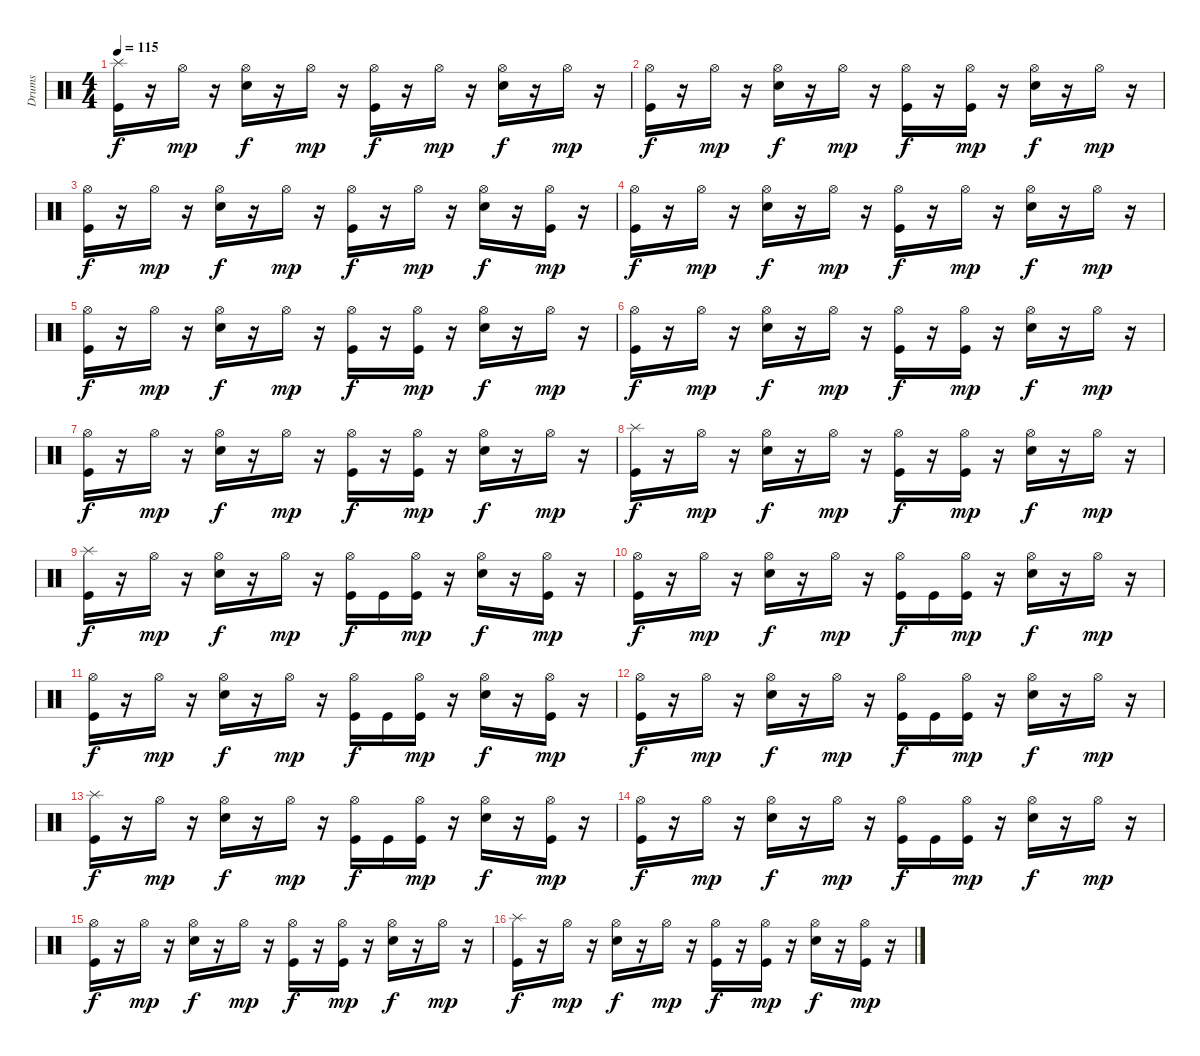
\track ("Drums" "Drums") {instrument percussion}
\staff {score}
\articulation defaults
\ts (4 4)
\tempo 115
\clef neutral
\ks c
("Splash (hit)" "Kick (hit)").16{dy f} r.16 "Hi-Hat (open)".16{dy mp} r.16 ("Hi-Hat (open)" "Electric Snare (hit)").16{dy f} r.16 "Hi-Hat (open)".16{dy mp} r.16 ("Hi-Hat (open)" "Kick (hit)").16{dy f} r.16 "Hi-Hat (open)".16{dy mp} r.16 ("Hi-Hat (open)" "Electric Snare (hit)").16{dy f} r.16 "Hi-Hat (open)".16{dy mp} r.16 |
("Hi-Hat (open)" "Kick (hit)").16{dy f} r.16 "Hi-Hat (open)".16{dy mp} r.16 ("Hi-Hat (open)" "Electric Snare (hit)").16{dy f} r.16 "Hi-Hat (open)".16{dy mp} r.16 ("Hi-Hat (open)" "Kick (hit)").16{dy f} r.16 ("Kick (hit)" "Hi-Hat (open)").16{dy mp} r.16 ("Hi-Hat (open)" "Electric Snare (hit)").16{dy f} r.16 "Hi-Hat (open)".16{dy mp} r.16 |
("Hi-Hat (open)" "Kick (hit)").16{dy f} r.16 "Hi-Hat (open)".16{dy mp} r.16 ("Hi-Hat (open)" "Electric Snare (hit)").16{dy f} r.16 "Hi-Hat (open)".16{dy mp} r.16 ("Hi-Hat (open)" "Kick (hit)").16{dy f} r.16 "Hi-Hat (open)".16{dy mp} r.16 ("Hi-Hat (open)" "Electric Snare (hit)").16{dy f} r.16 ("Kick (hit)" "Hi-Hat (open)").16{dy mp} r.16 |
("Hi-Hat (open)" "Kick (hit)").16{dy f} r.16 "Hi-Hat (open)".16{dy mp} r.16 ("Hi-Hat (open)" "Electric Snare (hit)").16{dy f} r.16 "Hi-Hat (open)".16{dy mp} r.16 ("Hi-Hat (open)" "Kick (hit)").16{dy f} r.16 "Hi-Hat (open)".16{dy mp} r.16 ("Hi-Hat (open)" "Electric Snare (hit)").16{dy f} r.16 "Hi-Hat (open)".16{dy mp} r.16 |
("Hi-Hat (open)" "Kick (hit)").16{dy f} r.16 "Hi-Hat (open)".16{dy mp} r.16 ("Hi-Hat (open)" "Electric Snare (hit)").16{dy f} r.16 "Hi-Hat (open)".16{dy mp} r.16 ("Hi-Hat (open)" "Kick (hit)").16{dy f} r.16 ("Kick (hit)" "Hi-Hat (open)").16{dy mp} r.16 ("Hi-Hat (open)" "Electric Snare (hit)").16{dy f} r.16 "Hi-Hat (open)".16{dy mp} r.16 |
("Hi-Hat (open)" "Kick (hit)").16{dy f} r.16 "Hi-Hat (open)".16{dy mp} r.16 ("Hi-Hat (open)" "Electric Snare (hit)").16{dy f} r.16 "Hi-Hat (open)".16{dy mp} r.16 ("Hi-Hat (open)" "Kick (hit)").16{dy f} r.16 ("Kick (hit)" "Hi-Hat (open)").16{dy mp} r.16 ("Hi-Hat (open)" "Electric Snare (hit)").16{dy f} r.16 "Hi-Hat (open)".16{dy mp} r.16 |
("Hi-Hat (open)" "Kick (hit)").16{dy f} r.16 "Hi-Hat (open)".16{dy mp} r.16 ("Hi-Hat (open)" "Electric Snare (hit)").16{dy f} r.16 "Hi-Hat (open)".16{dy mp} r.16 ("Hi-Hat (open)" "Kick (hit)").16{dy f} r.16 ("Kick (hit)" "Hi-Hat (open)").16{dy mp} r.16 ("Hi-Hat (open)" "Electric Snare (hit)").16{dy f} r.16 "Hi-Hat (open)".16{dy mp} r.16 |
("Splash (hit)" "Kick (hit)").16{dy f} r.16 "Hi-Hat (open)".16{dy mp} r.16 ("Hi-Hat (open)" "Electric Snare (hit)").16{dy f} r.16 "Hi-Hat (open)".16{dy mp} r.16 ("Hi-Hat (open)" "Kick (hit)").16{dy f} r.16 ("Kick (hit)" "Hi-Hat (open)").16{dy mp} r.16 ("Hi-Hat (open)" "Electric Snare (hit)").16{dy f} r.16 "Hi-Hat (open)".16{dy mp} r.16 |
("Splash (hit)" "Kick (hit)").16{dy f} r.16 "Hi-Hat (open)".16{dy mp} r.16 ("Hi-Hat (open)" "Electric Snare (hit)").16{dy f} r.16 "Hi-Hat (open)".16{dy mp} r.16 ("Hi-Hat (open)" "Kick (hit)").16{dy f} "Kick (hit)".16 ("Kick (hit)" "Hi-Hat (open)").16{dy mp} r.16 ("Hi-Hat (open)" "Electric Snare (hit)").16{dy f} r.16 ("Kick (hit)" "Hi-Hat (open)").16{dy mp} r.16 |
("Hi-Hat (open)" "Kick (hit)").16{dy f} r.16 "Hi-Hat (open)".16{dy mp} r.16 ("Hi-Hat (open)" "Electric Snare (hit)").16{dy f} r.16 "Hi-Hat (open)".16{dy mp} r.16 ("Hi-Hat (open)" "Kick (hit)").16{dy f} "Kick (hit)".16 ("Kick (hit)" "Hi-Hat (open)").16{dy mp} r.16 ("Hi-Hat (open)" "Electric Snare (hit)").16{dy f} r.16 "Hi-Hat (open)".16{dy mp} r.16 |
("Hi-Hat (open)" "Kick (hit)").16{dy f} r.16 "Hi-Hat (open)".16{dy mp} r.16 ("Hi-Hat (open)" "Electric Snare (hit)").16{dy f} r.16 "Hi-Hat (open)".16{dy mp} r.16 ("Hi-Hat (open)" "Kick (hit)").16{dy f} "Kick (hit)".16 ("Kick (hit)" "Hi-Hat (open)").16{dy mp} r.16 ("Hi-Hat (open)" "Electric Snare (hit)").16{dy f} r.16 ("Kick (hit)" "Hi-Hat (open)").16{dy mp} r.16 |
("Hi-Hat (open)" "Kick (hit)").16{dy f} r.16 "Hi-Hat (open)".16{dy mp} r.16 ("Hi-Hat (open)" "Electric Snare (hit)").16{dy f} r.16 "Hi-Hat (open)".16{dy mp} r.16 ("Hi-Hat (open)" "Kick (hit)").16{dy f} "Kick (hit)".16 ("Kick (hit)" "Hi-Hat (open)").16{dy mp} r.16 ("Hi-Hat (open)" "Electric Snare (hit)").16{dy f} r.16 "Hi-Hat (open)".16{dy mp} r.16 |
("Splash (hit)" "Kick (hit)").16{dy f} r.16 "Hi-Hat (open)".16{dy mp} r.16 ("Hi-Hat (open)" "Electric Snare (hit)").16{dy f} r.16 "Hi-Hat (open)".16{dy mp} r.16 ("Hi-Hat (open)" "Kick (hit)").16{dy f} "Kick (hit)".16 ("Kick (hit)" "Hi-Hat (open)").16{dy mp} r.16 ("Hi-Hat (open)" "Electric Snare (hit)").16{dy f} r.16 ("Kick (hit)" "Hi-Hat (open)").16{dy mp} r.16 |
("Hi-Hat (open)" "Kick (hit)").16{dy f} r.16 "Hi-Hat (open)".16{dy mp} r.16 ("Hi-Hat (open)" "Electric Snare (hit)").16{dy f} r.16 "Hi-Hat (open)".16{dy mp} r.16 ("Hi-Hat (open)" "Kick (hit)").16{dy f} "Kick (hit)".16 ("Kick (hit)" "Hi-Hat (open)").16{dy mp} r.16 ("Hi-Hat (open)" "Electric Snare (hit)").16{dy f} r.16 "Hi-Hat (open)".16{dy mp} r.16 |
("Hi-Hat (open)" "Kick (hit)").16{dy f} r.16 "Hi-Hat (open)".16{dy mp} r.16 ("Hi-Hat (open)" "Electric Snare (hit)").16{dy f} r.16 "Hi-Hat (open)".16{dy mp} r.16 ("Hi-Hat (open)" "Kick (hit)").16{dy f} r.16 ("Kick (hit)" "Hi-Hat (open)").16{dy mp} r.16 ("Hi-Hat (open)" "Electric Snare (hit)").16{dy f} r.16 "Hi-Hat (open)".16{dy mp} r.16 |
("Splash (hit)" "Kick (hit)").16{dy f} r.16 "Hi-Hat (open)".16{dy mp} r.16 ("Hi-Hat (open)" "Electric Snare (hit)").16{dy f} r.16 "Hi-Hat (open)".16{dy mp} r.16 ("Hi-Hat (open)" "Kick (hit)").16{dy f} r.16 ("Kick (hit)" "Hi-Hat (open)").16{dy mp} r.16 ("Hi-Hat (open)" "Electric Snare (hit)").16{dy f} r.16 ("Kick (hit)" "Hi-Hat (open)").16{dy mp} r.16
